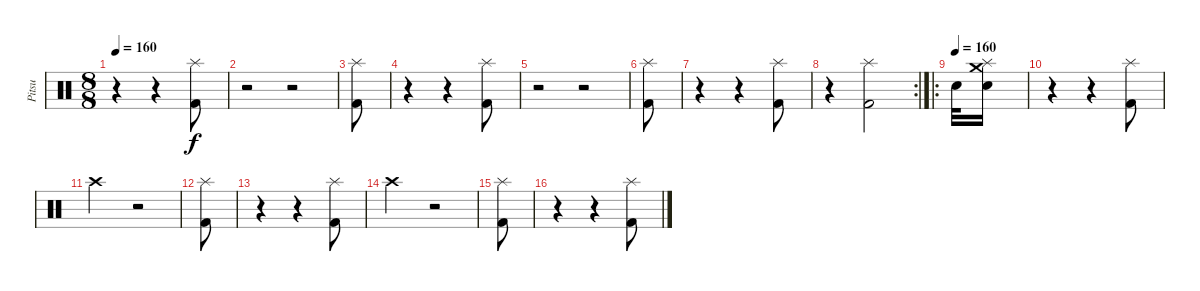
\track ("Pitsu" "Pitsu") {instrument percussion}
\staff {score}
\articulation defaults
\ts (8 8)
\tempo 160
\clef neutral
\ks c
r.4{dy f} r.4 ("Splash (hit)" "Kick (hit) 2").8 |
r.2 r.2 |
("Splash (hit)" "Kick (hit) 2").8 |
r.4 r.4 ("Splash (hit)" "Kick (hit) 2").8 |
r.2 r.2 |
("Splash (hit)" "Kick (hit) 2").8 |
r.4 r.4 ("Splash (hit)" "Kick (hit) 2").8 |
\rc 2
r.4 ("Splash (hit)" "Kick (hit) 2").2 |
\ro
\tempo (160)
"Snare (hit) 2".32 ("Crash medium (hit)" "Splash (hit)" "Snare (hit) 2").16 |
r.4 r.4 ("Splash (hit)" "Kick (hit) 2").8 |
"Crash high (hit)".2 r.2 |
("Splash (hit)" "Kick (hit) 2").8 |
r.4 r.4 ("Splash (hit)" "Kick (hit) 2").8 |
"Crash high (hit)".2 r.2 |
("Splash (hit)" "Kick (hit) 2").8 |
r.4 r.4 ("Splash (hit)" "Kick (hit) 2").8
